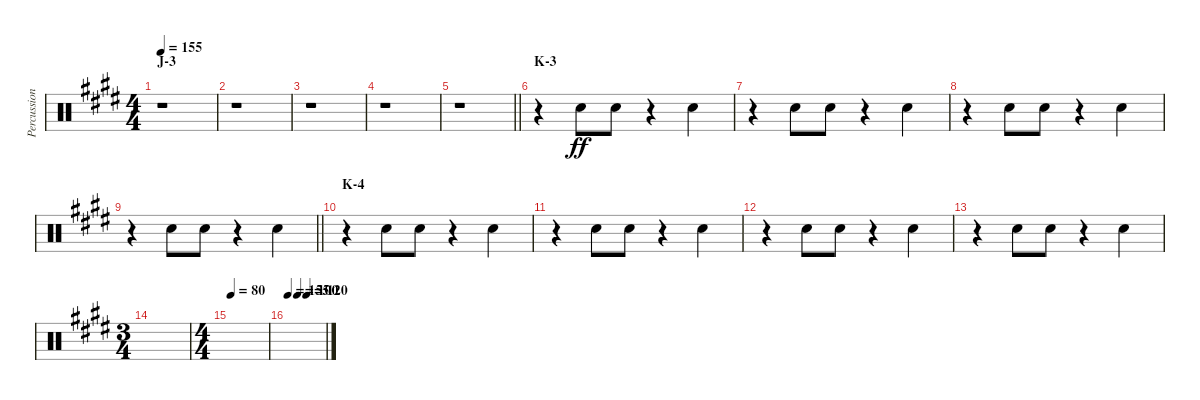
\track ("Percussion" "Percussion") {instrument percussion}
\staff {score}
\articulation defaults
\ts (4 4)
\section ("" "J-3")
\tempo 155
\clef neutral
\ks e
r.1{dy ff} |
r.1 |
r.1 |
r.1 |
\barLineRight lightlight
r.1 |
\section ("" "K-3")
r.4 "Hand Clap (hit)".8 "Hand Clap (hit)".8 r.4 "Hand Clap (hit)".4 |
r.4 "Hand Clap (hit)".8 "Hand Clap (hit)".8 r.4 "Hand Clap (hit)".4 |
r.4 "Hand Clap (hit)".8 "Hand Clap (hit)".8 r.4 "Hand Clap (hit)".4 |
\barLineRight lightlight
r.4 "Hand Clap (hit)".8 "Hand Clap (hit)".8 r.4 "Hand Clap (hit)".4 |
\section ("" "K-4")
r.4 "Hand Clap (hit)".8 "Hand Clap (hit)".8 r.4 "Hand Clap (hit)".4 |
r.4 "Hand Clap (hit)".8 "Hand Clap (hit)".8 r.4 "Hand Clap (hit)".4 |
r.4 "Hand Clap (hit)".8 "Hand Clap (hit)".8 r.4 "Hand Clap (hit)".4 |
r.4 "Hand Clap (hit)".8 "Hand Clap (hit)".8 r.4 "Hand Clap (hit)".4 |
\ts (3 4)
|
\ts (4 4)
\tempo 80
|
\tempo 155
\tempo (100 0.25)
\tempo (120 0.5)
